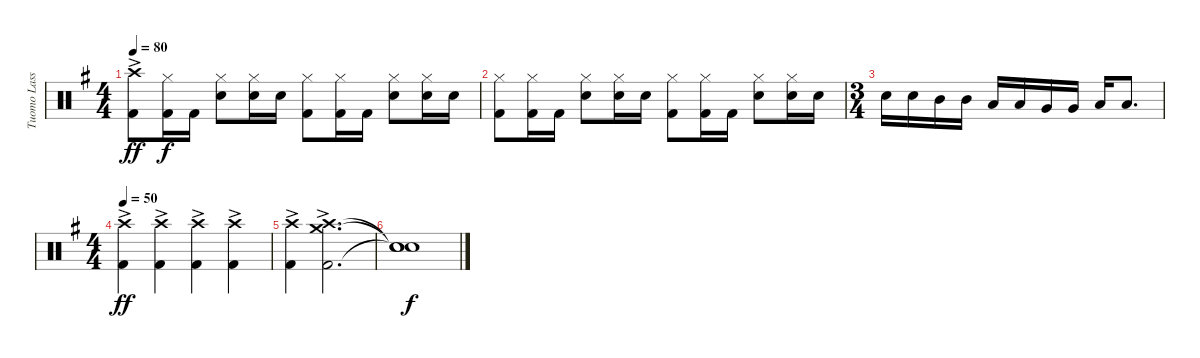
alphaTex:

\track ("Tuomo Lassila" "Tuomo Lass") {instrument percussion}
\staff {score}
\articulation defaults
\ts (4 4)
\tempo 80
\clef neutral
\ks g
("Crash high (hit)"{ac} "Kick (hit) 2"{ac}).8{dy ff} ("Hi-Hat (closed)" "Kick (hit) 2").16{dy f} "Kick (hit) 2".16 ("Hi-Hat (closed)" "Electric Snare (hit)").8 ("Hi-Hat (closed)" "Electric Snare (hit)").16 "Electric Snare (hit)".16 ("Hi-Hat (closed)" "Kick (hit) 2").8 ("Hi-Hat (closed)" "Kick (hit) 2").16 "Kick (hit) 2".16 ("Hi-Hat (closed)" "Electric Snare (hit)").8 ("Hi-Hat (closed)" "Electric Snare (hit)").16 "Electric Snare (hit)".16 |
("Hi-Hat (closed)" "Kick (hit) 2").8 ("Hi-Hat (closed)" "Kick (hit) 2").16 "Kick (hit) 2".16 ("Hi-Hat (closed)" "Electric Snare (hit)").8 ("Hi-Hat (closed)" "Electric Snare (hit)").16 "Electric Snare (hit)".16 ("Hi-Hat (closed)" "Kick (hit) 2").8 ("Hi-Hat (closed)" "Kick (hit) 2").16 "Kick (hit) 2".16 ("Hi-Hat (closed)" "Electric Snare (hit)").8 ("Hi-Hat (closed)" "Electric Snare (hit)").16 "Electric Snare (hit)".16 |
\ts (3 4)
"Electric Snare (hit)".16 "Electric Snare (hit)".16 "Mid Tom (hit)".16 "Mid Tom (hit)".16 "Low Tom (hit)".16 "Low Tom (hit)".16 "Very Low Tom (hit)".16 "Very Low Tom (hit)".16 "Low Floor Tom (hit)".16 "Low Floor Tom (hit)".8{d} |
\ts (4 4)
\tempo 50
("Crash high (hit)"{ac} "Kick (hit) 2"{ac}).4{dy ff} ("Crash high (hit)"{ac} "Kick (hit) 2"{ac}).4 ("Crash high (hit)"{ac} "Kick (hit) 2"{ac}).4 ("Crash high (hit)"{ac} "Kick (hit) 2"{ac}).4 |
("Crash high (hit)"{ac} "Kick (hit) 2"{ac}).4 ("Crash high (hit)"{ac} "Kick (hit) 2"{ac} "Crash medium (hit)"{ac}).2{d} |
("Snare (hit)"{t} "Snare (hit)"{t} "Snare (hit)"{t}).1{dy f}
